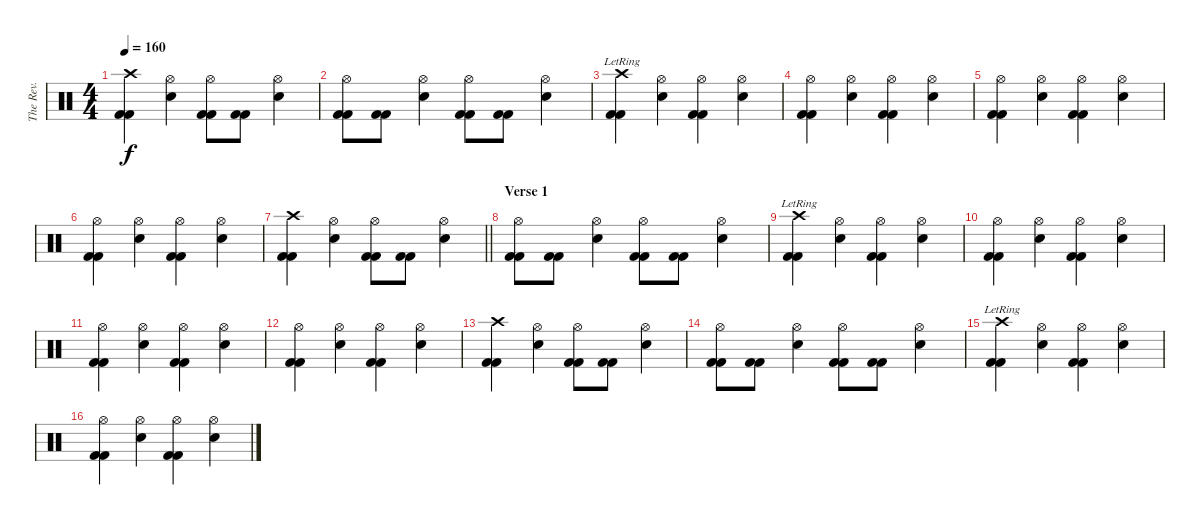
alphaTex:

\track ("The Rev." "The Rev.") {instrument percussion}
\staff {score}
\articulation defaults
\ts (4 4)
\tempo 160
\clef neutral
\ks c
("Crash high (hit)" "Kick (hit) 2" "Kick (hit) 2").4{dy f} ("Hi-Hat (open)" "Electric Snare (hit)").4 ("Hi-Hat (open)" "Kick (hit) 2" "Kick (hit) 2").8 ("Kick (hit) 2" "Kick (hit) 2").8 ("Hi-Hat (open)" "Electric Snare (hit)").4 |
("Hi-Hat (open)" "Kick (hit) 2" "Kick (hit) 2").8 ("Kick (hit) 2" "Kick (hit) 2").8 ("Hi-Hat (open)" "Electric Snare (hit)").4 ("Hi-Hat (open)" "Kick (hit) 2" "Kick (hit) 2").8 ("Kick (hit) 2" "Kick (hit) 2").8 ("Hi-Hat (open)" "Electric Snare (hit)").4 |
("Crash high (hit)" "Kick (hit) 2" "Kick (hit) 2"{lr}).4 ("Hi-Hat (open)" "Electric Snare (hit)").4 ("Hi-Hat (open)" "Kick (hit) 2" "Kick (hit) 2").4 ("Hi-Hat (open)" "Electric Snare (hit)").4 |
("Hi-Hat (open)" "Kick (hit) 2" "Kick (hit) 2").4 ("Hi-Hat (open)" "Electric Snare (hit)").4 ("Hi-Hat (open)" "Kick (hit) 2" "Kick (hit) 2").4 ("Hi-Hat (open)" "Electric Snare (hit)").4 |
("Hi-Hat (open)" "Kick (hit) 2" "Kick (hit) 2").4 ("Hi-Hat (open)" "Electric Snare (hit)").4 ("Hi-Hat (open)" "Kick (hit) 2" "Kick (hit) 2").4 ("Hi-Hat (open)" "Electric Snare (hit)").4 |
("Hi-Hat (open)" "Kick (hit) 2" "Kick (hit) 2").4 ("Hi-Hat (open)" "Electric Snare (hit)").4 ("Hi-Hat (open)" "Kick (hit) 2" "Kick (hit) 2").4 ("Hi-Hat (open)" "Electric Snare (hit)").4 |
\barLineRight lightlight
("Crash high (hit)" "Kick (hit) 2" "Kick (hit) 2").4 ("Hi-Hat (open)" "Electric Snare (hit)").4 ("Hi-Hat (open)" "Kick (hit) 2" "Kick (hit) 2").8 ("Kick (hit) 2" "Kick (hit) 2").8 ("Hi-Hat (open)" "Electric Snare (hit)").4 |
\section ("" "Verse 1")
("Hi-Hat (open)" "Kick (hit) 2" "Kick (hit) 2").8 ("Kick (hit) 2" "Kick (hit) 2").8 ("Hi-Hat (open)" "Electric Snare (hit)").4 ("Hi-Hat (open)" "Kick (hit) 2" "Kick (hit) 2").8 ("Kick (hit) 2" "Kick (hit) 2").8 ("Hi-Hat (open)" "Electric Snare (hit)").4 |
("Crash high (hit)" "Kick (hit) 2" "Kick (hit) 2"{lr}).4 ("Hi-Hat (open)" "Electric Snare (hit)").4 ("Hi-Hat (open)" "Kick (hit) 2" "Kick (hit) 2").4 ("Hi-Hat (open)" "Electric Snare (hit)").4 |
("Hi-Hat (open)" "Kick (hit) 2" "Kick (hit) 2").4 ("Hi-Hat (open)" "Electric Snare (hit)").4 ("Hi-Hat (open)" "Kick (hit) 2" "Kick (hit) 2").4 ("Hi-Hat (open)" "Electric Snare (hit)").4 |
("Hi-Hat (open)" "Kick (hit) 2" "Kick (hit) 2").4 ("Hi-Hat (open)" "Electric Snare (hit)").4 ("Hi-Hat (open)" "Kick (hit) 2" "Kick (hit) 2").4 ("Hi-Hat (open)" "Electric Snare (hit)").4 |
("Hi-Hat (open)" "Kick (hit) 2" "Kick (hit) 2").4 ("Hi-Hat (open)" "Electric Snare (hit)").4 ("Hi-Hat (open)" "Kick (hit) 2" "Kick (hit) 2").4 ("Hi-Hat (open)" "Electric Snare (hit)").4 |
("Crash high (hit)" "Kick (hit) 2" "Kick (hit) 2").4 ("Hi-Hat (open)" "Electric Snare (hit)").4 ("Hi-Hat (open)" "Kick (hit) 2" "Kick (hit) 2").8 ("Kick (hit) 2" "Kick (hit) 2").8 ("Hi-Hat (open)" "Electric Snare (hit)").4 |
("Hi-Hat (open)" "Kick (hit) 2" "Kick (hit) 2").8 ("Kick (hit) 2" "Kick (hit) 2").8 ("Hi-Hat (open)" "Electric Snare (hit)").4 ("Hi-Hat (open)" "Kick (hit) 2" "Kick (hit) 2").8 ("Kick (hit) 2" "Kick (hit) 2").8 ("Hi-Hat (open)" "Electric Snare (hit)").4 |
("Crash high (hit)" "Kick (hit) 2" "Kick (hit) 2"{lr}).4 ("Hi-Hat (open)" "Electric Snare (hit)").4 ("Hi-Hat (open)" "Kick (hit) 2" "Kick (hit) 2").4 ("Hi-Hat (open)" "Electric Snare (hit)").4 |
("Hi-Hat (open)" "Kick (hit) 2" "Kick (hit) 2").4 ("Hi-Hat (open)" "Electric Snare (hit)").4 ("Hi-Hat (open)" "Kick (hit) 2" "Kick (hit) 2").4 ("Hi-Hat (open)" "Electric Snare (hit)").4
